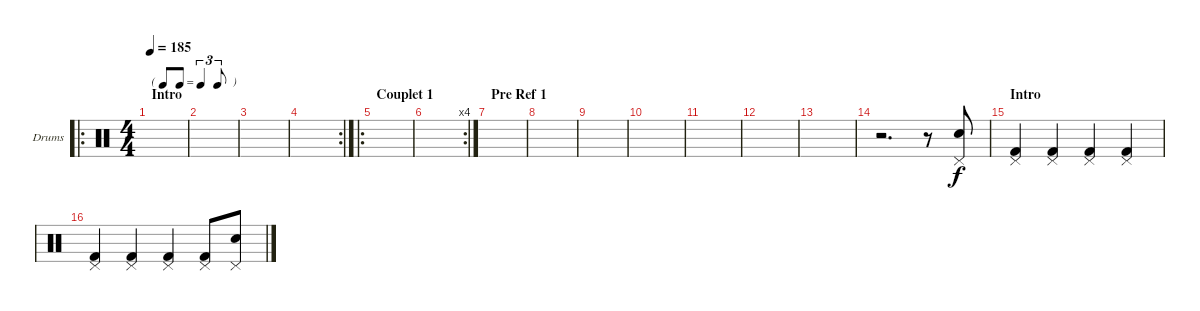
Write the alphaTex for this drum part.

\defaultSystemsLayout 4
\bracketExtendMode groupsimilarinstruments
\firstSystemTrackNameOrientation horizontal
\otherSystemsTrackNameOrientation horizontal
\track ("Batterie" "Drums") {instrument percussion}
\staff {score}
\articulation defaults
\ro
\ts (4 4)
\tf triplet8th
\section ("" "Intro")
\tempo 185
\clef neutral
\scale
0.502222
\ks c
|
\scale
0.248889 |
\scale
0.248889 |
\rc 2
|
\ro
\section ("" "Couplet 1")
|
\rc 4
|
\section ("" "Pre Ref 1")
|
|
|
|
|
|
|
r.2{d} r.8 ("Pedal Hi-Hat (hit)" "Snare (hit) 2").8 |
\section ("" "Intro")
("Kick (hit) 2" "Pedal Hi-Hat (hit)").4 ("Kick (hit) 2" "Pedal Hi-Hat (hit)").4 ("Kick (hit) 2" "Pedal Hi-Hat (hit)").4 ("Kick (hit) 2" "Pedal Hi-Hat (hit)").4 |
("Kick (hit) 2" "Pedal Hi-Hat (hit)").4 ("Kick (hit) 2" "Pedal Hi-Hat (hit)").4 ("Kick (hit) 2" "Pedal Hi-Hat (hit)").4 ("Kick (hit) 2" "Pedal Hi-Hat (hit)").8 ("Pedal Hi-Hat (hit)" "Snare (hit) 2").8
